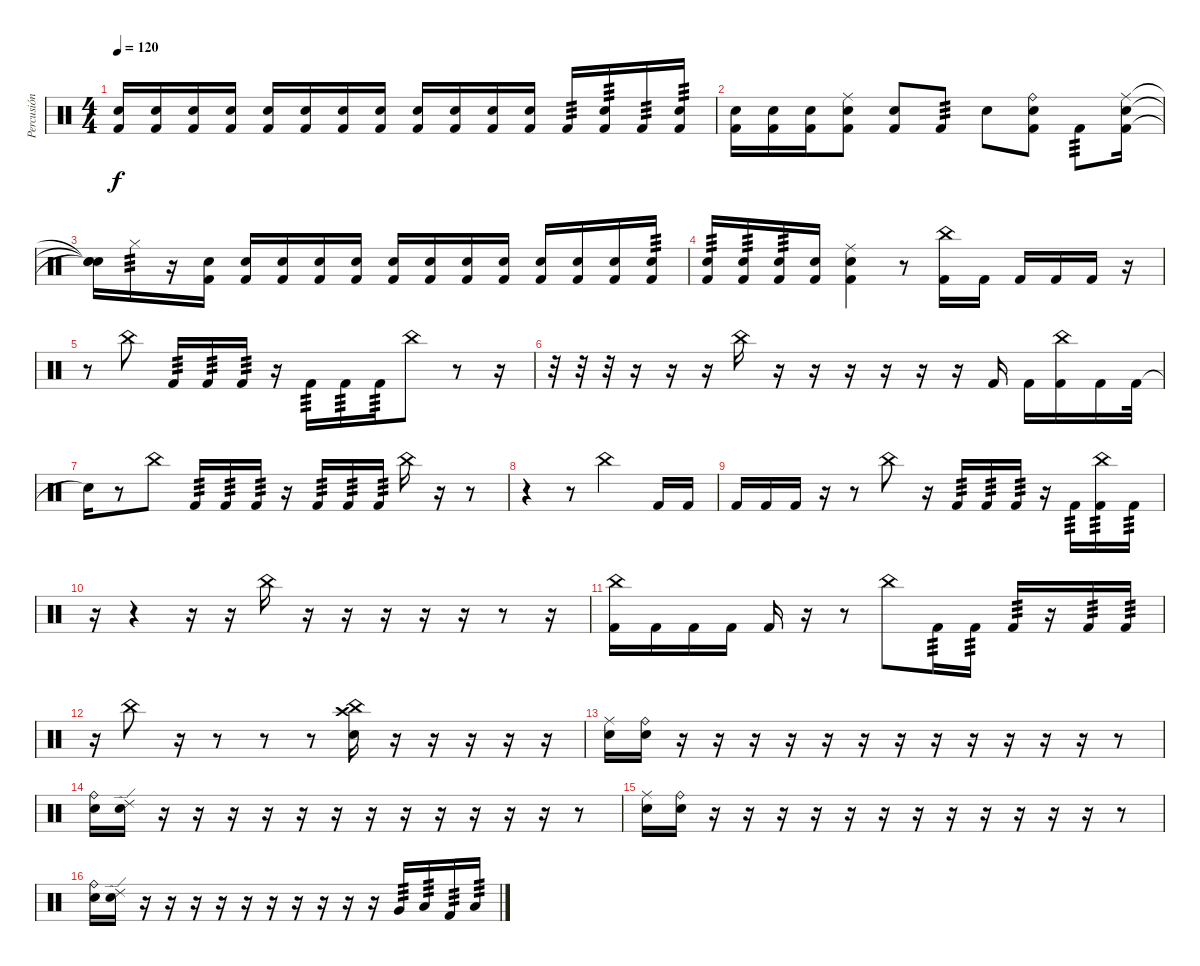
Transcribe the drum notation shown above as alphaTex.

\track ("Percusión" "Percusión") {instrument percussion}
\staff {score}
\articulation defaults
\ts (4 4)
\tempo 120
\clef neutral
\ks c
("Electric Snare (hit)" "Kick (hit) 2").16{dy f} ("Electric Snare (hit)" "Kick (hit) 2").16 ("Electric Snare (hit)" "Kick (hit) 2").16 ("Electric Snare (hit)" "Kick (hit) 2").16 ("Electric Snare (hit)" "Kick (hit) 2").16 ("Electric Snare (hit)" "Kick (hit) 2").16 ("Electric Snare (hit)" "Kick (hit) 2").16 ("Electric Snare (hit)" "Kick (hit) 2").16 ("Electric Snare (hit)" "Kick (hit) 2").16 ("Electric Snare (hit)" "Kick (hit) 2").16 ("Electric Snare (hit)" "Kick (hit) 2").16 ("Electric Snare (hit)" "Kick (hit) 2").16 "Kick (hit) 2".16{tp 3} ("Electric Snare (hit)" "Kick (hit) 2").16{tp 3} "Kick (hit) 2".16{tp 3} ("Electric Snare (hit)" "Kick (hit) 2").16{tp 3} |
("Electric Snare (hit)" "Kick (hit) 2").16 ("Electric Snare (hit)" "Kick (hit) 2").16 ("Electric Snare (hit)" "Kick (hit) 2").16 ("Kick (hit) 2" "Electric Snare (hit)" "Ride (middle)").8 ("Kick (hit) 2" "Electric Snare (hit)").8 "Kick (hit) 2".8{tp 3} "Electric Snare (hit)".8 ("Kick (hit) 2" "Electric Snare (hit)" "Ride (bell)").8 "Kick (hit) 2".8{tp 3} ("Electric Snare (hit)" "Kick (hit) 2" "Ride (middle)").16 |
("Snare (hit)"{t} "Snare (hit)"{t} "Snare (hit)"{t}).16 "Hi-Hat (closed)".16{tp 3} r.16 ("Electric Snare (hit)" "Kick (hit) 2").16 ("Electric Snare (hit)" "Kick (hit) 2").16 ("Electric Snare (hit)" "Kick (hit) 2").16 ("Electric Snare (hit)" "Kick (hit) 2").16 ("Electric Snare (hit)" "Kick (hit) 2").16 ("Electric Snare (hit)" "Kick (hit) 2").16 ("Electric Snare (hit)" "Kick (hit) 2").16 ("Electric Snare (hit)" "Kick (hit) 2").16 ("Electric Snare (hit)" "Kick (hit) 2").16 ("Electric Snare (hit)" "Kick (hit) 2").16 ("Electric Snare (hit)" "Kick (hit) 2").16 ("Electric Snare (hit)" "Kick (hit) 2").16 ("Electric Snare (hit)" "Kick (hit) 2").16{tp 3} |
("Electric Snare (hit)" "Kick (hit) 2").16{tp 3} ("Electric Snare (hit)" "Kick (hit) 2").16{tp 3} ("Electric Snare (hit)" "Kick (hit) 2").16{tp 3} ("Electric Snare (hit)" "Kick (hit) 2").16 ("Electric Snare (hit)" "Kick (hit) 2" "Ride (middle)").4 r.8 ("Kick (hit) 2" "China (hit)").16 "Kick (hit) 2".16 "Kick (hit) 2".16 "Kick (hit) 2".16 "Kick (hit) 2".16 r.16 |
r.8 "China (hit)".8 "Kick (hit) 2".16{tp 3} "Kick (hit) 2".16{tp 3} "Kick (hit) 2".16{tp 3} r.16 "Kick (hit) 2".16{tp 3} "Kick (hit) 2".16{tp 3} "Kick (hit) 2".16{tp 3} "China (hit)".8 r.8 r.16 |
r.32 r.32 r.32 r.16 r.16 r.16 "China (hit)".16 r.16 r.16 r.16 r.16 r.16 r.16 "Kick (hit) 2".16 "Kick (hit) 2".16 ("Kick (hit) 2" "China (hit)").16 "Kick (hit) 2".16 "Kick (hit) 2".32 |
"Snare (hit)"{t}.16 r.8 "China (hit)".8 "Kick (hit) 2".16{tp 3} "Kick (hit) 2".16{tp 3} "Kick (hit) 2".16{tp 3} r.16 "Kick (hit) 2".16{tp 3} "Kick (hit) 2".16{tp 3} "Kick (hit) 2".16{tp 3} "China (hit)".16 r.16 r.8 |
r.4 r.8 "China (hit)".2 "Kick (hit) 2".16 "Kick (hit) 2".16 |
"Kick (hit) 2".16 "Kick (hit) 2".16 "Kick (hit) 2".16 r.16 r.8 "China (hit)".8 r.16 "Kick (hit) 2".16{tp 3} "Kick (hit) 2".16{tp 3} "Kick (hit) 2".16{tp 3} r.16 "Kick (hit) 2".16{tp 3} ("Kick (hit) 2" "China (hit)").16{tp 3} "Kick (hit) 2".16{tp 3} |
r.16 r.4 r.16 r.16 "China (hit)".16 r.16 r.16 r.16 r.16 r.16 r.8 r.16 |
("Kick (hit) 2" "China (hit)").16 "Kick (hit) 2".16 "Kick (hit) 2".16 "Kick (hit) 2".16 "Kick (hit) 2".16 r.16 r.8 "China (hit)".8 "Kick (hit) 2".16{tp 3} "Kick (hit) 2".16{tp 3} "Kick (hit) 2".16{tp 3} r.16 "Kick (hit) 2".16{tp 3} "Kick (hit) 2".16{tp 3} |
r.16 "China (hit)".8 r.16 r.8 r.8 r.8 ("Snare (hit) 2" "Crash high (hit)" "China (hit)").16 r.16 r.16 r.16 r.16 r.16 |
("Electric Snare (hit)" "Ride (middle)").16 ("Electric Snare (hit)" "Ride (bell)").16 r.16 r.16 r.16 r.16 r.16 r.16 r.16 r.16 r.16 r.16 r.16 r.16 r.8 |
("Ride (bell)" "Electric Snare (hit)").16 ("Electric Snare (hit)" "Ride (edge) 2").16 r.16 r.16 r.16 r.16 r.16 r.16 r.16 r.16 r.16 r.16 r.16 r.16 r.8 |
("Electric Snare (hit)" "Ride (middle)").16 ("Electric Snare (hit)" "Ride (bell)").16 r.16 r.16 r.16 r.16 r.16 r.16 r.16 r.16 r.16 r.16 r.16 r.16 r.8 |
("Ride (bell)" "Electric Snare (hit)").16 ("Electric Snare (hit)" "Ride (edge) 2").16 r.16 r.16 r.16 r.16 r.16 r.16 r.16 r.16 r.16 r.16 "Very Low Tom (hit)".16{tp 3} "Low Floor Tom (hit)".16{tp 3} "Kick (hit) 2".16{tp 3} "Low Floor Tom (hit)".16{tp 3}
